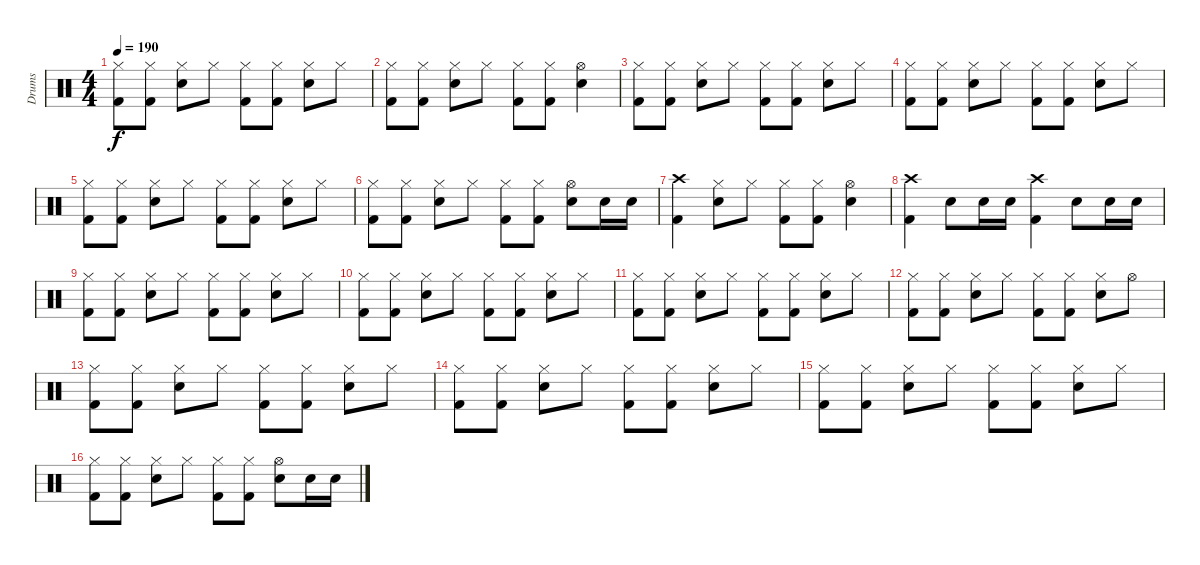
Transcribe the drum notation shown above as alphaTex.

\track ("Drums" "Drums") {instrument percussion}
\staff {score}
\articulation defaults
\ts (4 4)
\tempo 190
\clef neutral
\ks c
("Kick (hit) 2" "Hi-Hat (closed)").8{dy f} ("Kick (hit) 2" "Hi-Hat (closed)").8 ("Snare (hit) 2" "Hi-Hat (closed)").8 "Hi-Hat (closed)".8 ("Kick (hit) 2" "Hi-Hat (closed)").8 ("Kick (hit) 2" "Hi-Hat (closed)").8 ("Snare (hit) 2" "Hi-Hat (closed)").8 "Hi-Hat (closed)".8 |
("Kick (hit) 2" "Hi-Hat (closed)").8 ("Kick (hit) 2" "Hi-Hat (closed)").8 ("Snare (hit) 2" "Hi-Hat (closed)").8 "Hi-Hat (closed)".8 ("Kick (hit) 2" "Hi-Hat (closed)").8 ("Kick (hit) 2" "Hi-Hat (closed)").8 ("Snare (hit) 2" "Hi-Hat (open)").4 |
("Kick (hit) 2" "Hi-Hat (closed)").8 ("Kick (hit) 2" "Hi-Hat (closed)").8 ("Snare (hit) 2" "Hi-Hat (closed)").8 "Hi-Hat (closed)".8 ("Kick (hit) 2" "Hi-Hat (closed)").8 ("Kick (hit) 2" "Hi-Hat (closed)").8 ("Snare (hit) 2" "Hi-Hat (closed)").8 "Hi-Hat (closed)".8 |
("Kick (hit) 2" "Hi-Hat (closed)").8 ("Kick (hit) 2" "Hi-Hat (closed)").8 ("Snare (hit) 2" "Hi-Hat (closed)").8 "Hi-Hat (closed)".8 ("Kick (hit) 2" "Hi-Hat (closed)").8 ("Kick (hit) 2" "Hi-Hat (closed)").8 ("Snare (hit) 2" "Hi-Hat (closed)").8 "Hi-Hat (closed)".8 |
("Kick (hit) 2" "Hi-Hat (closed)").8 ("Kick (hit) 2" "Hi-Hat (closed)").8 ("Snare (hit) 2" "Hi-Hat (closed)").8 "Hi-Hat (closed)".8 ("Kick (hit) 2" "Hi-Hat (closed)").8 ("Kick (hit) 2" "Hi-Hat (closed)").8 ("Snare (hit) 2" "Hi-Hat (closed)").8 "Hi-Hat (closed)".8 |
("Kick (hit) 2" "Hi-Hat (closed)").8 ("Kick (hit) 2" "Hi-Hat (closed)").8 ("Snare (hit) 2" "Hi-Hat (closed)").8 "Hi-Hat (closed)".8 ("Kick (hit) 2" "Hi-Hat (closed)").8 ("Kick (hit) 2" "Hi-Hat (closed)").8 ("Snare (hit) 2" "Hi-Hat (open)").8 "Snare (hit) 2".16 "Snare (hit) 2".16 |
("Kick (hit) 2" "Crash high (hit)").4 ("Snare (hit) 2" "Hi-Hat (closed)").8 "Hi-Hat (closed)".8 ("Kick (hit) 2" "Hi-Hat (closed)").8 ("Kick (hit) 2" "Hi-Hat (closed)").8 ("Snare (hit) 2" "Hi-Hat (open)").4 |
("Kick (hit) 2" "Crash high (hit)").4 "Snare (hit) 2".8 "Snare (hit) 2".16 "Snare (hit) 2".16 ("Kick (hit) 2" "Crash high (hit)").4 "Snare (hit) 2".8 "Snare (hit) 2".16 "Snare (hit) 2".16 |
("Kick (hit) 2" "Hi-Hat (closed)").8 ("Kick (hit) 2" "Hi-Hat (closed)").8 ("Snare (hit) 2" "Hi-Hat (closed)").8 "Hi-Hat (closed)".8 ("Kick (hit) 2" "Hi-Hat (closed)").8 ("Kick (hit) 2" "Hi-Hat (closed)").8 ("Snare (hit) 2" "Hi-Hat (closed)").8 "Hi-Hat (closed)".8 |
("Kick (hit) 2" "Hi-Hat (closed)").8 ("Kick (hit) 2" "Hi-Hat (closed)").8 ("Snare (hit) 2" "Hi-Hat (closed)").8 "Hi-Hat (closed)".8 ("Kick (hit) 2" "Hi-Hat (closed)").8 ("Kick (hit) 2" "Hi-Hat (closed)").8 ("Snare (hit) 2" "Hi-Hat (closed)").8 "Hi-Hat (closed)".8 |
("Kick (hit) 2" "Hi-Hat (closed)").8 ("Kick (hit) 2" "Hi-Hat (closed)").8 ("Snare (hit) 2" "Hi-Hat (closed)").8 "Hi-Hat (closed)".8 ("Kick (hit) 2" "Hi-Hat (closed)").8 ("Kick (hit) 2" "Hi-Hat (closed)").8 ("Snare (hit) 2" "Hi-Hat (closed)").8 "Hi-Hat (closed)".8 |
("Kick (hit) 2" "Hi-Hat (closed)").8 ("Kick (hit) 2" "Hi-Hat (closed)").8 ("Snare (hit) 2" "Hi-Hat (closed)").8 "Hi-Hat (closed)".8 ("Kick (hit) 2" "Hi-Hat (closed)").8 ("Kick (hit) 2" "Hi-Hat (closed)").8 ("Snare (hit) 2" "Hi-Hat (closed)").8 "Hi-Hat (open)".8 |
("Kick (hit) 2" "Hi-Hat (closed)").8 ("Kick (hit) 2" "Hi-Hat (closed)").8 ("Snare (hit) 2" "Hi-Hat (closed)").8 "Hi-Hat (closed)".8 ("Kick (hit) 2" "Hi-Hat (closed)").8 ("Kick (hit) 2" "Hi-Hat (closed)").8 ("Snare (hit) 2" "Hi-Hat (closed)").8 "Hi-Hat (closed)".8 |
("Kick (hit) 2" "Hi-Hat (closed)").8 ("Kick (hit) 2" "Hi-Hat (closed)").8 ("Snare (hit) 2" "Hi-Hat (closed)").8 "Hi-Hat (closed)".8 ("Kick (hit) 2" "Hi-Hat (closed)").8 ("Kick (hit) 2" "Hi-Hat (closed)").8 ("Snare (hit) 2" "Hi-Hat (closed)").8 "Hi-Hat (closed)".8 |
("Kick (hit) 2" "Hi-Hat (closed)").8 ("Kick (hit) 2" "Hi-Hat (closed)").8 ("Snare (hit) 2" "Hi-Hat (closed)").8 "Hi-Hat (closed)".8 ("Kick (hit) 2" "Hi-Hat (closed)").8 ("Kick (hit) 2" "Hi-Hat (closed)").8 ("Snare (hit) 2" "Hi-Hat (closed)").8 "Hi-Hat (closed)".8 |
("Kick (hit) 2" "Hi-Hat (closed)").8 ("Kick (hit) 2" "Hi-Hat (closed)").8 ("Snare (hit) 2" "Hi-Hat (closed)").8 "Hi-Hat (closed)".8 ("Kick (hit) 2" "Hi-Hat (closed)").8 ("Kick (hit) 2" "Hi-Hat (closed)").8 ("Snare (hit) 2" "Hi-Hat (open)").8 "Snare (hit) 2".16 "Snare (hit) 2".16
